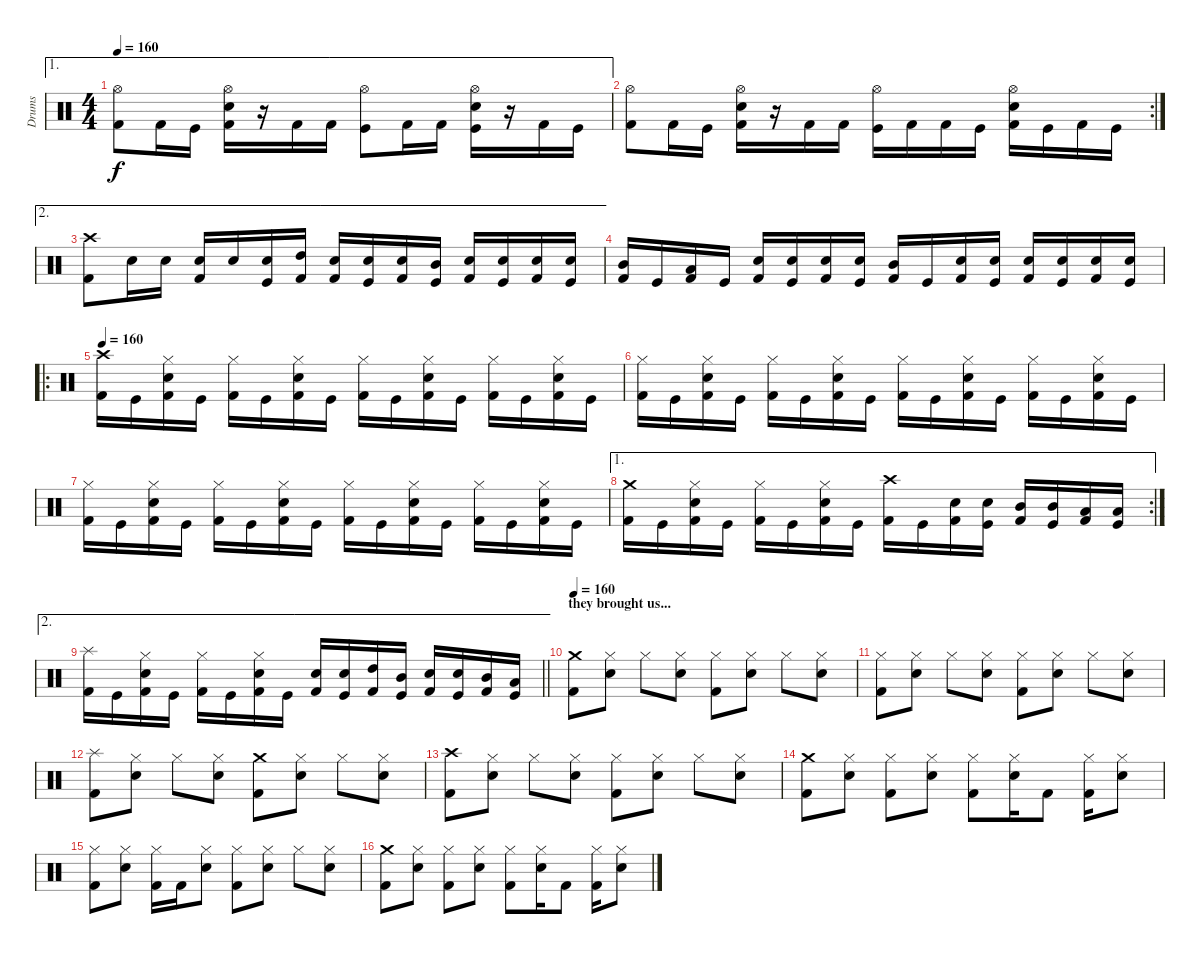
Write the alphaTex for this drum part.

\track ("Drums" "Drums") {instrument percussion}
\staff {score}
\articulation defaults
\ae 1
\ts (4 4)
\tempo 160
\clef neutral
\ks c
("Hi-Hat (open)" "Kick (hit) 2").8{dy f} "Kick (hit) 2".16 "Kick (hit)".16 ("Hi-Hat (open)" "Snare (hit) 2" "Kick (hit) 2").16 r.16 "Kick (hit) 2".16 "Kick (hit) 2".16 ("Hi-Hat (open)" "Kick (hit)").8 "Kick (hit) 2".16 "Kick (hit) 2".16 ("Hi-Hat (open)" "Snare (hit) 2" "Kick (hit)").16 r.16 "Kick (hit) 2".16 "Kick (hit)".16 |
\rc 2
("Hi-Hat (open)" "Kick (hit) 2").8 "Kick (hit) 2".16 "Kick (hit)".16 ("Hi-Hat (open)" "Snare (hit) 2" "Kick (hit) 2").16 r.16 "Kick (hit) 2".16 "Kick (hit) 2".16 ("Hi-Hat (open)" "Kick (hit)").16 "Kick (hit) 2".16 "Kick (hit) 2".16 "Kick (hit)".16 ("Hi-Hat (open)" "Snare (hit) 2" "Kick (hit) 2").16 "Kick (hit)".16 "Kick (hit) 2".16 "Kick (hit)".16 |
\ae 2
("Crash high (hit)" "Kick (hit) 2").8 "Snare (hit) 2".16 "Snare (hit) 2".16 ("Snare (hit) 2" "Kick (hit) 2").16 "Snare (hit) 2".16 ("Snare (hit) 2" "Kick (hit)").16 ("High Tom (hit)" "Kick (hit) 2").16 ("Snare (hit) 2" "Kick (hit) 2").16 ("Snare (hit) 2" "Kick (hit)").16 ("Snare (hit) 2" "Kick (hit) 2").16 ("Mid Tom (hit)" "Kick (hit)").16 ("Snare (hit) 2" "Kick (hit) 2").16 ("Snare (hit) 2" "Kick (hit)").16 ("Snare (hit) 2" "Kick (hit) 2").16 ("Snare (hit) 2" "Kick (hit)").16 |
("Mid Tom (hit)" "Kick (hit) 2").16 "Kick (hit)".16 ("Low Tom (hit)" "Kick (hit) 2").16 "Kick (hit)".16 ("Snare (hit) 2" "Kick (hit) 2").16 ("Snare (hit) 2" "Kick (hit)").16 ("Snare (hit) 2" "Kick (hit) 2").16 ("Snare (hit) 2" "Kick (hit)").16 ("Mid Tom (hit)" "Kick (hit) 2").16 "Kick (hit)".16 ("Snare (hit) 2" "Kick (hit) 2").16 ("Snare (hit) 2" "Kick (hit)").16 ("Snare (hit) 2" "Kick (hit) 2").16 ("Snare (hit) 2" "Kick (hit)").16 ("Snare (hit) 2" "Kick (hit) 2").16 ("Snare (hit) 2" "Kick (hit)").16 |
\ro
\tempo 160
("Crash high (hit)" "Kick (hit) 2").16 "Kick (hit)".16 ("Hi-Hat (closed)" "Snare (hit) 2" "Kick (hit) 2").16 "Kick (hit)".16 ("Hi-Hat (closed)" "Kick (hit) 2").16 "Kick (hit)".16 ("Hi-Hat (closed)" "Snare (hit) 2" "Kick (hit) 2").16 "Kick (hit)".16 ("Hi-Hat (closed)" "Kick (hit) 2").16 "Kick (hit)".16 ("Hi-Hat (closed)" "Snare (hit) 2" "Kick (hit) 2").16 "Kick (hit)".16 ("Hi-Hat (closed)" "Kick (hit) 2").16 "Kick (hit)".16 ("Hi-Hat (closed)" "Snare (hit) 2" "Kick (hit) 2").16 "Kick (hit)".16 |
("Hi-Hat (closed)" "Kick (hit) 2").16 "Kick (hit)".16 ("Hi-Hat (closed)" "Snare (hit) 2" "Kick (hit) 2").16 "Kick (hit)".16 ("Hi-Hat (closed)" "Kick (hit) 2").16 "Kick (hit)".16 ("Hi-Hat (closed)" "Snare (hit) 2" "Kick (hit) 2").16 "Kick (hit)".16 ("Hi-Hat (closed)" "Kick (hit) 2").16 "Kick (hit)".16 ("Hi-Hat (closed)" "Snare (hit) 2" "Kick (hit) 2").16 "Kick (hit)".16 ("Hi-Hat (closed)" "Kick (hit) 2").16 "Kick (hit)".16 ("Hi-Hat (closed)" "Snare (hit) 2" "Kick (hit) 2").16 "Kick (hit)".16 |
("Hi-Hat (closed)" "Kick (hit) 2").16 "Kick (hit)".16 ("Hi-Hat (closed)" "Snare (hit) 2" "Kick (hit) 2").16 "Kick (hit)".16 ("Hi-Hat (closed)" "Kick (hit) 2").16 "Kick (hit)".16 ("Hi-Hat (closed)" "Snare (hit) 2" "Kick (hit) 2").16 "Kick (hit)".16 ("Hi-Hat (closed)" "Kick (hit) 2").16 "Kick (hit)".16 ("Hi-Hat (closed)" "Snare (hit) 2" "Kick (hit) 2").16 "Kick (hit)".16 ("Hi-Hat (closed)" "Kick (hit) 2").16 "Kick (hit)".16 ("Hi-Hat (closed)" "Snare (hit) 2" "Kick (hit) 2").16 "Kick (hit)".16 |
\ae 1
\rc 2
("Crash medium (hit)" "Kick (hit) 2").16 "Kick (hit)".16 ("Hi-Hat (closed)" "Snare (hit) 2" "Kick (hit) 2").16 "Kick (hit)".16 ("Hi-Hat (closed)" "Kick (hit) 2").16 "Kick (hit)".16 ("Hi-Hat (closed)" "Snare (hit) 2" "Kick (hit) 2").16 "Kick (hit)".16 ("Crash high (hit)" "Kick (hit) 2").16 "Kick (hit)".16 ("Snare (hit) 2" "Kick (hit) 2").16 ("Snare (hit) 2" "Kick (hit)").16 ("Mid Tom (hit)" "Kick (hit) 2").16 ("Mid Tom (hit)" "Kick (hit)").16 ("Low Tom (hit)" "Kick (hit) 2").16 ("Low Tom (hit)" "Kick (hit)").16 |
\ae 2
\barLineRight lightlight
("Splash (hit)" "Kick (hit) 2").16 "Kick (hit)".16 ("Hi-Hat (closed)" "Snare (hit) 2" "Kick (hit) 2").16 "Kick (hit)".16 ("Hi-Hat (closed)" "Kick (hit) 2").16 "Kick (hit)".16 ("Hi-Hat (closed)" "Snare (hit) 2" "Kick (hit) 2").16 "Kick (hit)".16 ("Snare (hit) 2" "Kick (hit) 2").16 ("Snare (hit) 2" "Kick (hit)").16 ("High Tom (hit)" "Kick (hit) 2").16 ("Mid Tom (hit)" "Kick (hit)").16 ("Snare (hit) 2" "Kick (hit) 2").16 ("Snare (hit) 2" "Kick (hit)").16 ("Mid Tom (hit)" "Kick (hit) 2").16 ("Low Tom (hit)" "Kick (hit)").16 |
\section ("" "they brought us...")
\tempo 160
("Crash medium (hit)" "Kick (hit) 2").8 ("Hi-Hat (closed)" "Snare (hit) 2").8 "Hi-Hat (closed)".8 ("Hi-Hat (closed)" "Snare (hit) 2").8 ("Hi-Hat (closed)" "Kick (hit) 2").8 ("Hi-Hat (closed)" "Snare (hit) 2").8 "Hi-Hat (closed)".8 ("Hi-Hat (closed)" "Snare (hit) 2").8 |
("Hi-Hat (closed)" "Kick (hit) 2").8 ("Hi-Hat (closed)" "Snare (hit) 2").8 "Hi-Hat (closed)".8 ("Hi-Hat (closed)" "Snare (hit) 2").8 ("Hi-Hat (closed)" "Kick (hit) 2").8 ("Hi-Hat (closed)" "Snare (hit) 2").8 "Hi-Hat (closed)".8 ("Hi-Hat (closed)" "Snare (hit) 2").8 |
("Splash (hit)" "Kick (hit) 2").8 ("Hi-Hat (closed)" "Snare (hit) 2").8 "Hi-Hat (closed)".8 ("Hi-Hat (closed)" "Snare (hit) 2").8 ("Crash medium (hit)" "Kick (hit) 2").8 ("Hi-Hat (closed)" "Snare (hit) 2").8 "Hi-Hat (closed)".8 ("Hi-Hat (closed)" "Snare (hit) 2").8 |
("Crash high (hit)" "Kick (hit) 2").8 ("Hi-Hat (closed)" "Snare (hit) 2").8 "Hi-Hat (closed)".8 ("Hi-Hat (closed)" "Snare (hit) 2").8 ("Hi-Hat (closed)" "Kick (hit) 2").8 ("Hi-Hat (closed)" "Snare (hit) 2").8 "Hi-Hat (closed)".8 ("Hi-Hat (closed)" "Snare (hit) 2").8 |
("Crash medium (hit)" "Kick (hit) 2").8 ("Hi-Hat (closed)" "Snare (hit) 2").8 ("Hi-Hat (closed)" "Kick (hit) 2").8 ("Hi-Hat (closed)" "Snare (hit) 2").8 ("Hi-Hat (closed)" "Kick (hit) 2").8 ("Hi-Hat (closed)" "Snare (hit) 2").16 "Kick (hit) 2".8 ("Hi-Hat (closed)" "Kick (hit) 2").16 ("Hi-Hat (closed)" "Snare (hit) 2").8 |
("Hi-Hat (closed)" "Kick (hit) 2").8 ("Hi-Hat (closed)" "Snare (hit) 2").8 ("Hi-Hat (closed)" "Kick (hit) 2").16 "Kick (hit) 2".16 ("Hi-Hat (closed)" "Snare (hit) 2").8 ("Hi-Hat (closed)" "Kick (hit) 2").8 ("Hi-Hat (closed)" "Snare (hit) 2").8 "Hi-Hat (closed)".8 ("Hi-Hat (closed)" "Snare (hit) 2").8 |
("Crash medium (hit)" "Kick (hit) 2").8 ("Hi-Hat (closed)" "Snare (hit) 2").8 ("Hi-Hat (closed)" "Kick (hit) 2").8 ("Hi-Hat (closed)" "Snare (hit) 2").8 ("Hi-Hat (closed)" "Kick (hit) 2").8 ("Hi-Hat (closed)" "Snare (hit) 2").16 "Kick (hit) 2".8 ("Hi-Hat (closed)" "Kick (hit) 2").16 ("Hi-Hat (closed)" "Snare (hit) 2").8
